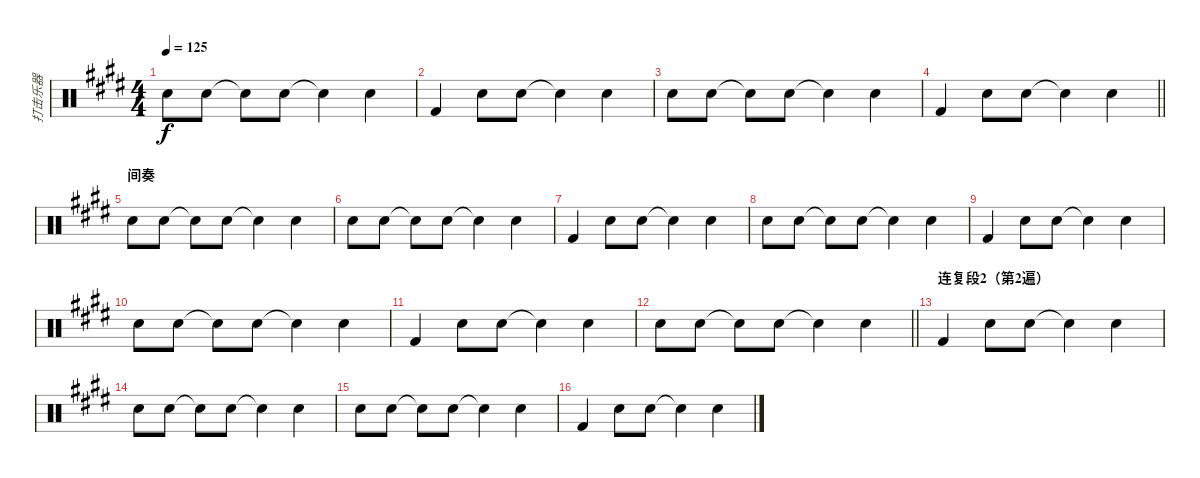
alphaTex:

\track ("打击乐器" "打击乐器") {instrument percussion}
\staff {score}
\articulation defaults
\ts (4 4)
\tempo 125
\clef neutral
\ks e "Snare (hit) 2".8{dy f} "Snare (hit) 2".8 "Snare (hit)"{t}.8 "Snare (hit) 2".8 "Snare (hit)"{t}.4 "Snare (hit) 2".4
|
"Kick (hit) 2".4 "Snare (hit) 2".8 "Snare (hit) 2".8 "Snare (hit)"{t}.4 "Snare (hit) 2".4 |
"Snare (hit) 2".8 "Snare (hit) 2".8 "Snare (hit)"{t}.8 "Snare (hit) 2".8 "Snare (hit)"{t}.4 "Snare (hit) 2".4 |
\barLineRight lightlight "Kick (hit) 2".4 "Snare (hit) 2".8 "Snare (hit) 2".8 "Snare (hit)"{t}.4 "Snare (hit) 2".4
|
\section ("" "间奏")
"Snare (hit) 2".8 "Snare (hit) 2".8 "Snare (hit)"{t}.8 "Snare (hit) 2".8 "Snare (hit)"{t}.4 "Snare (hit) 2".4 |
"Snare (hit) 2".8 "Snare (hit) 2".8 "Snare (hit)"{t}.8 "Snare (hit) 2".8 "Snare (hit)"{t}.4 "Snare (hit) 2".4 |
"Kick (hit) 2".4 "Snare (hit) 2".8 "Snare (hit) 2".8 "Snare (hit)"{t}.4 "Snare (hit) 2".4 |
"Snare (hit) 2".8 "Snare (hit) 2".8 "Snare (hit)"{t}.8 "Snare (hit) 2".8 "Snare (hit)"{t}.4 "Snare (hit) 2".4 |
"Kick (hit) 2".4 "Snare (hit) 2".8 "Snare (hit) 2".8 "Snare (hit)"{t}.4 "Snare (hit) 2".4 |
"Snare (hit) 2".8 "Snare (hit) 2".8 "Snare (hit)"{t}.8 "Snare (hit) 2".8 "Snare (hit)"{t}.4 "Snare (hit) 2".4 |
"Kick (hit) 2".4 "Snare (hit) 2".8 "Snare (hit) 2".8 "Snare (hit)"{t}.4 "Snare (hit) 2".4 |
\barLineRight lightlight "Snare (hit) 2".8 "Snare (hit) 2".8 "Snare (hit)"{t}.8 "Snare (hit) 2".8 "Snare (hit)"{t}.4 "Snare (hit) 2".4
|
\section ("" "连复段2（第2遍）")
"Kick (hit) 2".4 "Snare (hit) 2".8 "Snare (hit) 2".8 "Snare (hit)"{t}.4 "Snare (hit) 2".4 |
"Snare (hit) 2".8 "Snare (hit) 2".8 "Snare (hit)"{t}.8 "Snare (hit) 2".8 "Snare (hit)"{t}.4 "Snare (hit) 2".4 |
"Snare (hit) 2".8 "Snare (hit) 2".8 "Snare (hit)"{t}.8 "Snare (hit) 2".8 "Snare (hit)"{t}.4 "Snare (hit) 2".4 |
"Kick (hit) 2".4 "Snare (hit) 2".8 "Snare (hit) 2".8 "Snare (hit)"{t}.4 "Snare (hit) 2".4
